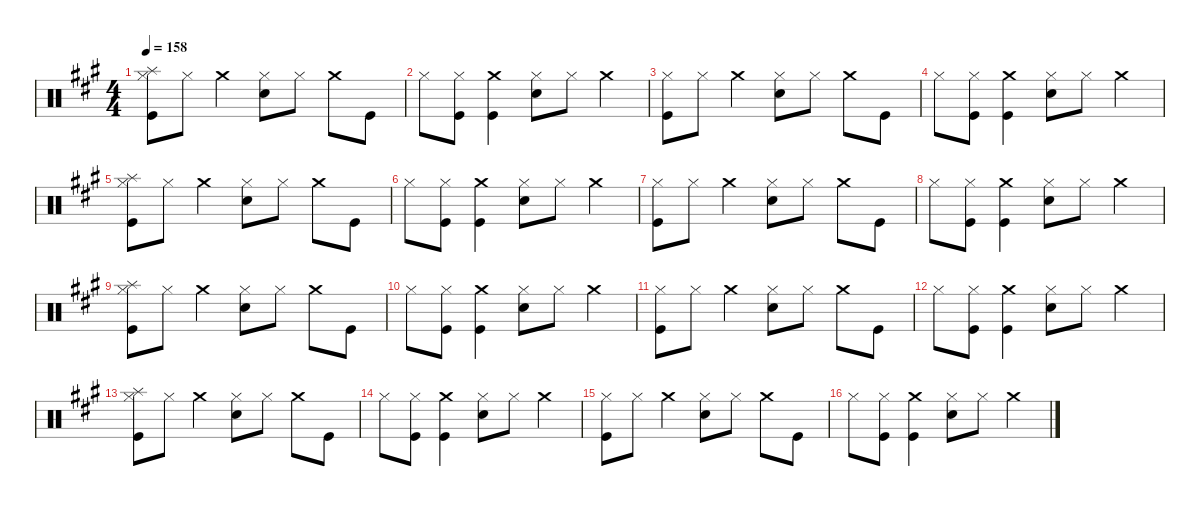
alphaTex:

\defaultSystemsLayout 4
\hideDynamics
\bracketExtendMode nobrackets
\singleTrackTrackNamePolicy hidden
\multiTrackTrackNamePolicy hidden
\firstSystemTrackNameMode fullname
\firstSystemTrackNameOrientation horizontal
\otherSystemsTrackNameOrientation horizontal
\track ("Drums" "drm.") {instrument percussion}
\staff {score}
\articulation defaults
\ts (4 4)
\tempo 158
\clef neutral
\ks f#minor
("Splash (hit)"{acc forcenatural} "Hi-Hat (closed)"{acc forcenatural} "Kick (hit)"{acc forcenatural}).8{dy f beam Down} "Hi-Hat (closed)"{acc forcenatural}.8{dy mp beam Down} "Crash medium (hit)"{acc forcenatural}.4{dy f beam Down} ("Hi-Hat (closed)"{acc forcenatural} "Snare (hit) 2"{acc forcenatural}).8{dy mp beam Down} "Hi-Hat (closed)"{acc forcenatural}.8{beam Down} "Crash medium (hit)"{acc forcenatural}.8{dy f beam Down} "Kick (hit)"{acc forcenatural}.8{beam Down} |
"Hi-Hat (closed)"{acc forcenatural}.8{dy mp beam Down} ("Hi-Hat (closed)"{acc forcenatural} "Kick (hit)"{acc forcenatural}).8{beam Down} ("Crash medium (hit)"{acc forcenatural} "Kick (hit)"{acc forcenatural}).4{dy f beam Down} ("Hi-Hat (closed)"{acc forcenatural} "Snare (hit) 2"{acc forcenatural}).8{dy mp beam Down} "Hi-Hat (closed)"{acc forcenatural}.8{beam Down} "Crash medium (hit)"{acc forcenatural}.4{dy f beam Down} |
("Hi-Hat (closed)"{acc forcenatural} "Kick (hit)"{acc forcenatural}).8{dy mp beam Down} "Hi-Hat (closed)"{acc forcenatural}.8{beam Down} "Crash medium (hit)"{acc forcenatural}.4{dy f beam Down} ("Hi-Hat (closed)"{acc forcenatural} "Snare (hit) 2"{acc forcenatural}).8{dy mp beam Down} "Hi-Hat (closed)"{acc forcenatural}.8{beam Down} "Crash medium (hit)"{acc forcenatural}.8{dy f beam Down} "Kick (hit)"{acc forcenatural}.8{beam Down} |
"Hi-Hat (closed)"{acc forcenatural}.8{dy mp beam Down} ("Hi-Hat (closed)"{acc forcenatural} "Kick (hit)"{acc forcenatural}).8{beam Down} ("Crash medium (hit)"{acc forcenatural} "Kick (hit)"{acc forcenatural}).4{dy f beam Down} ("Hi-Hat (closed)"{acc forcenatural} "Snare (hit) 2"{acc forcenatural}).8{dy mp beam Down} "Hi-Hat (closed)"{acc forcenatural}.8{beam Down} "Crash medium (hit)"{acc forcenatural}.4{dy f beam Down} |
("Splash (hit)"{acc forcenatural} "Hi-Hat (closed)"{acc forcenatural} "Kick (hit)"{acc forcenatural}).8{beam Down} "Hi-Hat (closed)"{acc forcenatural}.8{dy mp beam Down} "Crash medium (hit)"{acc forcenatural}.4{dy f beam Down} ("Hi-Hat (closed)"{acc forcenatural} "Snare (hit) 2"{acc forcenatural}).8{dy mp beam Down} "Hi-Hat (closed)"{acc forcenatural}.8{beam Down} "Crash medium (hit)"{acc forcenatural}.8{dy f beam Down} "Kick (hit)"{acc forcenatural}.8{beam Down} |
"Hi-Hat (closed)"{acc forcenatural}.8{dy mp beam Down} ("Hi-Hat (closed)"{acc forcenatural} "Kick (hit)"{acc forcenatural}).8{beam Down} ("Crash medium (hit)"{acc forcenatural} "Kick (hit)"{acc forcenatural}).4{dy f beam Down} ("Hi-Hat (closed)"{acc forcenatural} "Snare (hit) 2"{acc forcenatural}).8{dy mp beam Down} "Hi-Hat (closed)"{acc forcenatural}.8{beam Down} "Crash medium (hit)"{acc forcenatural}.4{dy f beam Down} |
("Hi-Hat (closed)"{acc forcenatural} "Kick (hit)"{acc forcenatural}).8{dy mp beam Down} "Hi-Hat (closed)"{acc forcenatural}.8{beam Down} "Crash medium (hit)"{acc forcenatural}.4{dy f beam Down} ("Hi-Hat (closed)"{acc forcenatural} "Snare (hit) 2"{acc forcenatural}).8{dy mp beam Down} "Hi-Hat (closed)"{acc forcenatural}.8{beam Down} "Crash medium (hit)"{acc forcenatural}.8{dy f beam Down} "Kick (hit)"{acc forcenatural}.8{beam Down} |
"Hi-Hat (closed)"{acc forcenatural}.8{dy mp beam Down} ("Hi-Hat (closed)"{acc forcenatural} "Kick (hit)"{acc forcenatural}).8{beam Down} ("Crash medium (hit)"{acc forcenatural} "Kick (hit)"{acc forcenatural}).4{dy f beam Down} ("Hi-Hat (closed)"{acc forcenatural} "Snare (hit) 2"{acc forcenatural}).8{dy mp beam Down} "Hi-Hat (closed)"{acc forcenatural}.8{beam Down} "Crash medium (hit)"{acc forcenatural}.4{dy f beam Down} |
("Splash (hit)"{acc forcenatural} "Hi-Hat (closed)"{acc forcenatural} "Kick (hit)"{acc forcenatural}).8{beam Down} "Hi-Hat (closed)"{acc forcenatural}.8{dy mp beam Down} "Crash medium (hit)"{acc forcenatural}.4{dy f beam Down} ("Hi-Hat (closed)"{acc forcenatural} "Snare (hit) 2"{acc forcenatural}).8{dy mp beam Down} "Hi-Hat (closed)"{acc forcenatural}.8{beam Down} "Crash medium (hit)"{acc forcenatural}.8{dy f beam Down} "Kick (hit)"{acc forcenatural}.8{beam Down} |
"Hi-Hat (closed)"{acc forcenatural}.8{dy mp beam Down} ("Hi-Hat (closed)"{acc forcenatural} "Kick (hit)"{acc forcenatural}).8{beam Down} ("Crash medium (hit)"{acc forcenatural} "Kick (hit)"{acc forcenatural}).4{dy f beam Down} ("Hi-Hat (closed)"{acc forcenatural} "Snare (hit) 2"{acc forcenatural}).8{dy mp beam Down} "Hi-Hat (closed)"{acc forcenatural}.8{beam Down} "Crash medium (hit)"{acc forcenatural}.4{dy f beam Down} |
("Hi-Hat (closed)"{acc forcenatural} "Kick (hit)"{acc forcenatural}).8{dy mp beam Down} "Hi-Hat (closed)"{acc forcenatural}.8{beam Down} "Crash medium (hit)"{acc forcenatural}.4{dy f beam Down} ("Hi-Hat (closed)"{acc forcenatural} "Snare (hit) 2"{acc forcenatural}).8{dy mp beam Down} "Hi-Hat (closed)"{acc forcenatural}.8{beam Down} "Crash medium (hit)"{acc forcenatural}.8{dy f beam Down} "Kick (hit)"{acc forcenatural}.8{beam Down} |
"Hi-Hat (closed)"{acc forcenatural}.8{dy mp beam Down} ("Hi-Hat (closed)"{acc forcenatural} "Kick (hit)"{acc forcenatural}).8{beam Down} ("Crash medium (hit)"{acc forcenatural} "Kick (hit)"{acc forcenatural}).4{dy f beam Down} ("Hi-Hat (closed)"{acc forcenatural} "Snare (hit) 2"{acc forcenatural}).8{dy mp beam Down} "Hi-Hat (closed)"{acc forcenatural}.8{beam Down} "Crash medium (hit)"{acc forcenatural}.4{dy f beam Down} |
("Splash (hit)"{acc forcenatural} "Hi-Hat (closed)"{acc forcenatural} "Kick (hit)"{acc forcenatural}).8{beam Down} "Hi-Hat (closed)"{acc forcenatural}.8{dy mp beam Down} "Crash medium (hit)"{acc forcenatural}.4{dy f beam Down} ("Hi-Hat (closed)"{acc forcenatural} "Snare (hit) 2"{acc forcenatural}).8{dy mp beam Down} "Hi-Hat (closed)"{acc forcenatural}.8{beam Down} "Crash medium (hit)"{acc forcenatural}.8{dy f beam Down} "Kick (hit)"{acc forcenatural}.8{beam Down} |
"Hi-Hat (closed)"{acc forcenatural}.8{dy mp beam Down} ("Hi-Hat (closed)"{acc forcenatural} "Kick (hit)"{acc forcenatural}).8{beam Down} ("Crash medium (hit)"{acc forcenatural} "Kick (hit)"{acc forcenatural}).4{dy f beam Down} ("Hi-Hat (closed)"{acc forcenatural} "Snare (hit) 2"{acc forcenatural}).8{dy mp beam Down} "Hi-Hat (closed)"{acc forcenatural}.8{beam Down} "Crash medium (hit)"{acc forcenatural}.4{dy f beam Down} |
("Hi-Hat (closed)"{acc forcenatural} "Kick (hit)"{acc forcenatural}).8{dy mp beam Down} "Hi-Hat (closed)"{acc forcenatural}.8{beam Down} "Crash medium (hit)"{acc forcenatural}.4{dy f beam Down} ("Hi-Hat (closed)"{acc forcenatural} "Snare (hit) 2"{acc forcenatural}).8{dy mp beam Down} "Hi-Hat (closed)"{acc forcenatural}.8{beam Down} "Crash medium (hit)"{acc forcenatural}.8{dy f beam Down} "Kick (hit)"{acc forcenatural}.8{beam Down} |
"Hi-Hat (closed)"{acc forcenatural}.8{dy mp beam Down} ("Hi-Hat (closed)"{acc forcenatural} "Kick (hit)"{acc forcenatural}).8{beam Down} ("Crash medium (hit)"{acc forcenatural} "Kick (hit)"{acc forcenatural}).4{dy f beam Down} ("Hi-Hat (closed)"{acc forcenatural} "Snare (hit) 2"{acc forcenatural}).8{dy mp beam Down} "Hi-Hat (closed)"{acc forcenatural}.8{beam Down} "Crash medium (hit)"{acc forcenatural}.4{dy f beam Down}
